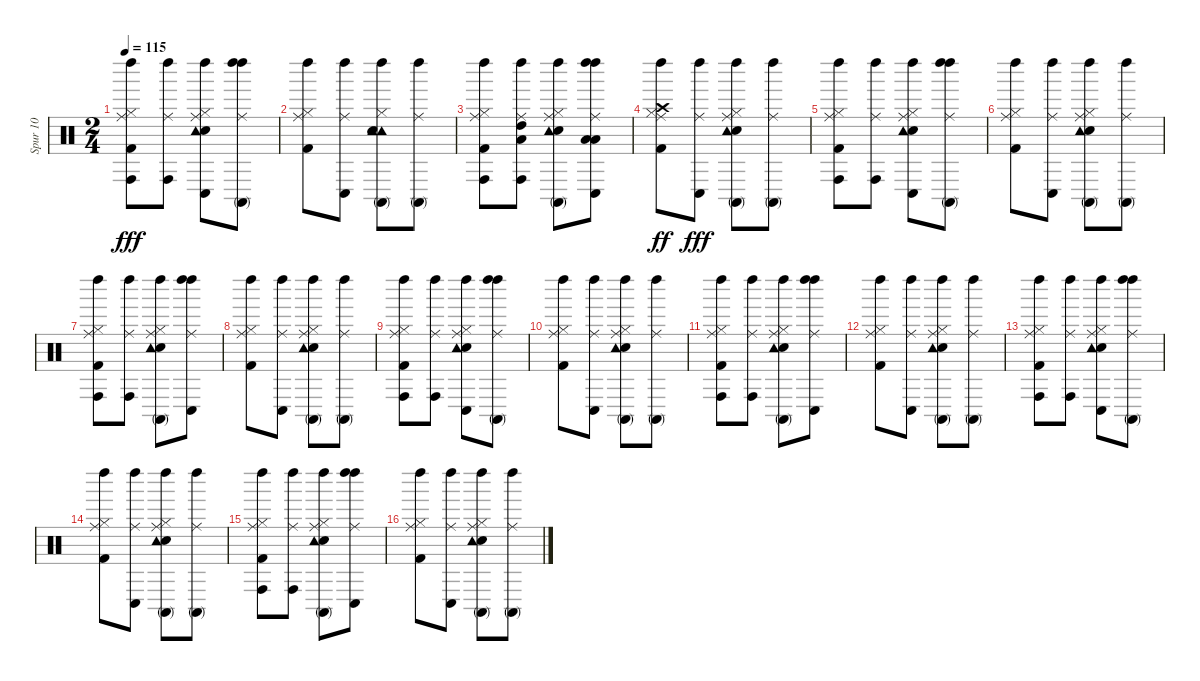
\track ("Spur 10" "Spur 10") {instrument percussion}
\staff {score}
\articulation defaults
\ts (2 4)
\tempo 115
\clef neutral
\ks c
("Left Maraca (hit)" "Hi-Hat (closed)" "Kick (hit) 2" "Conga high (hit)" "Ride (middle)").8{dy fff} ("Left Maraca (hit)" "Conga high (hit)" "Ride (middle)").8 ("Left Maraca (hit)" "Hi-Hat (closed)" "Electric Snare (hit)" "Tambourine (hit)" "Conga low (hit)" "Ride (middle)").8 ("Left Maraca (hit)" "Ride (middle)" "Left Maraca (hit)" "Conga high (mute)").8 |
("Left Maraca (hit)" "Hi-Hat (closed)" "Kick (hit) 2" "Ride (middle)").8 ("Left Maraca (hit)" "Conga low (hit)" "Ride (middle)").8 ("Tambourine (hit)" "Left Maraca (hit)" "Hi-Hat (closed)" "Electric Snare (hit)" "Tambourine (hit)" "Conga high (mute)").8 ("Ride (middle)" "Left Maraca (hit)" "Conga high (mute)").8 |
("Left Maraca (hit)" "Hi-Hat (closed)" "Kick (hit) 2" "Conga high (hit)" "Ride (middle)").8 ("Left Maraca (hit)" "Conga high (hit)" "Ride (middle)" "High Tom (hit)" "Low Tom (hit)").8 ("Left Maraca (hit)" "Hi-Hat (closed)" "Electric Snare (hit)" "Tambourine (hit)" "Conga high (mute)" "Ride (middle)").8 ("Left Maraca (hit)" "Ride (middle)" "Left Maraca (hit)" "Conga low (hit)" "Low Tom (hit)" "Low Floor Tom (hit)").8 |
("Left Maraca (hit)" "Hi-Hat (closed)" "Kick (hit) 2" "Ride (middle)" "Crash high (hit)").8{dy ff} ("Left Maraca (hit)" "Conga low (hit)" "Ride (middle)").8{dy fff} ("Left Maraca (hit)" "Hi-Hat (closed)" "Electric Snare (hit)" "Tambourine (hit)" "Conga high (mute)" "Ride (middle)").8 ("Left Maraca (hit)" "Conga high (mute)" "Ride (middle)").8 |
("Left Maraca (hit)" "Hi-Hat (closed)" "Kick (hit) 2" "Conga high (hit)" "Ride (middle)").8 ("Left Maraca (hit)" "Conga high (hit)" "Ride (middle)").8 ("Left Maraca (hit)" "Hi-Hat (closed)" "Electric Snare (hit)" "Tambourine (hit)" "Conga low (hit)" "Ride (middle)").8 ("Left Maraca (hit)" "Ride (middle)" "Left Maraca (hit)" "Conga high (mute)").8 |
("Left Maraca (hit)" "Hi-Hat (closed)" "Kick (hit) 2" "Ride (middle)").8 ("Left Maraca (hit)" "Conga low (hit)" "Ride (middle)").8 ("Left Maraca (hit)" "Hi-Hat (closed)" "Electric Snare (hit)" "Tambourine (hit)" "Conga high (mute)" "Ride (middle)").8 ("Ride (middle)" "Left Maraca (hit)" "Conga high (mute)").8 |
("Left Maraca (hit)" "Hi-Hat (closed)" "Kick (hit) 2" "Conga high (hit)" "Ride (middle)").8 ("Left Maraca (hit)" "Conga high (hit)" "Ride (middle)").8 ("Left Maraca (hit)" "Hi-Hat (closed)" "Electric Snare (hit)" "Tambourine (hit)" "Conga high (mute)" "Ride (middle)").8 ("Left Maraca (hit)" "Ride (middle)" "Left Maraca (hit)" "Conga low (hit)").8 |
("Left Maraca (hit)" "Hi-Hat (closed)" "Kick (hit) 2" "Ride (middle)").8 ("Left Maraca (hit)" "Conga low (hit)" "Ride (middle)").8 ("Left Maraca (hit)" "Hi-Hat (closed)" "Electric Snare (hit)" "Tambourine (hit)" "Conga high (mute)" "Ride (middle)").8 ("Left Maraca (hit)" "Conga high (mute)" "Ride (middle)").8 |
("Left Maraca (hit)" "Hi-Hat (closed)" "Kick (hit) 2" "Conga high (hit)" "Ride (middle)").8 ("Left Maraca (hit)" "Conga high (hit)" "Ride (middle)").8 ("Left Maraca (hit)" "Hi-Hat (closed)" "Electric Snare (hit)" "Tambourine (hit)" "Conga low (hit)" "Ride (middle)").8 ("Left Maraca (hit)" "Ride (middle)" "Left Maraca (hit)" "Conga high (mute)").8 |
("Left Maraca (hit)" "Hi-Hat (closed)" "Kick (hit) 2" "Ride (middle)").8 ("Left Maraca (hit)" "Conga low (hit)" "Ride (middle)").8 ("Left Maraca (hit)" "Hi-Hat (closed)" "Electric Snare (hit)" "Tambourine (hit)" "Conga high (mute)" "Ride (middle)").8 ("Ride (middle)" "Left Maraca (hit)" "Conga high (mute)").8 |
("Left Maraca (hit)" "Hi-Hat (closed)" "Kick (hit) 2" "Conga high (hit)" "Ride (middle)").8 ("Left Maraca (hit)" "Conga high (hit)" "Ride (middle)").8 ("Left Maraca (hit)" "Hi-Hat (closed)" "Electric Snare (hit)" "Tambourine (hit)" "Conga high (mute)" "Ride (middle)").8 ("Left Maraca (hit)" "Ride (middle)" "Left Maraca (hit)" "Conga low (hit)").8 |
("Left Maraca (hit)" "Hi-Hat (closed)" "Kick (hit) 2" "Ride (middle)").8 ("Left Maraca (hit)" "Conga low (hit)" "Ride (middle)").8 ("Left Maraca (hit)" "Hi-Hat (closed)" "Electric Snare (hit)" "Tambourine (hit)" "Conga high (mute)" "Ride (middle)").8 ("Left Maraca (hit)" "Conga high (mute)" "Ride (middle)").8 |
("Left Maraca (hit)" "Hi-Hat (closed)" "Kick (hit) 2" "Conga high (hit)" "Ride (middle)").8 ("Left Maraca (hit)" "Conga high (hit)" "Ride (middle)").8 ("Left Maraca (hit)" "Hi-Hat (closed)" "Electric Snare (hit)" "Tambourine (hit)" "Conga low (hit)" "Ride (middle)").8 ("Left Maraca (hit)" "Ride (middle)" "Left Maraca (hit)" "Conga high (mute)").8 |
("Left Maraca (hit)" "Hi-Hat (closed)" "Kick (hit) 2" "Ride (middle)").8 ("Left Maraca (hit)" "Conga low (hit)" "Ride (middle)").8 ("Left Maraca (hit)" "Hi-Hat (closed)" "Electric Snare (hit)" "Tambourine (hit)" "Conga high (mute)" "Ride (middle)").8 ("Ride (middle)" "Left Maraca (hit)" "Conga high (mute)").8 |
("Left Maraca (hit)" "Hi-Hat (closed)" "Kick (hit) 2" "Conga high (hit)" "Ride (middle)").8 ("Left Maraca (hit)" "Conga high (hit)" "Ride (middle)").8 ("Left Maraca (hit)" "Hi-Hat (closed)" "Electric Snare (hit)" "Tambourine (hit)" "Conga high (mute)" "Ride (middle)").8 ("Left Maraca (hit)" "Ride (middle)" "Left Maraca (hit)" "Conga low (hit)").8 |
("Left Maraca (hit)" "Hi-Hat (closed)" "Kick (hit) 2" "Ride (middle)").8 ("Left Maraca (hit)" "Conga low (hit)" "Ride (middle)").8 ("Left Maraca (hit)" "Hi-Hat (closed)" "Electric Snare (hit)" "Tambourine (hit)" "Conga high (mute)" "Ride (middle)").8 ("Left Maraca (hit)" "Conga high (mute)" "Ride (middle)").8
